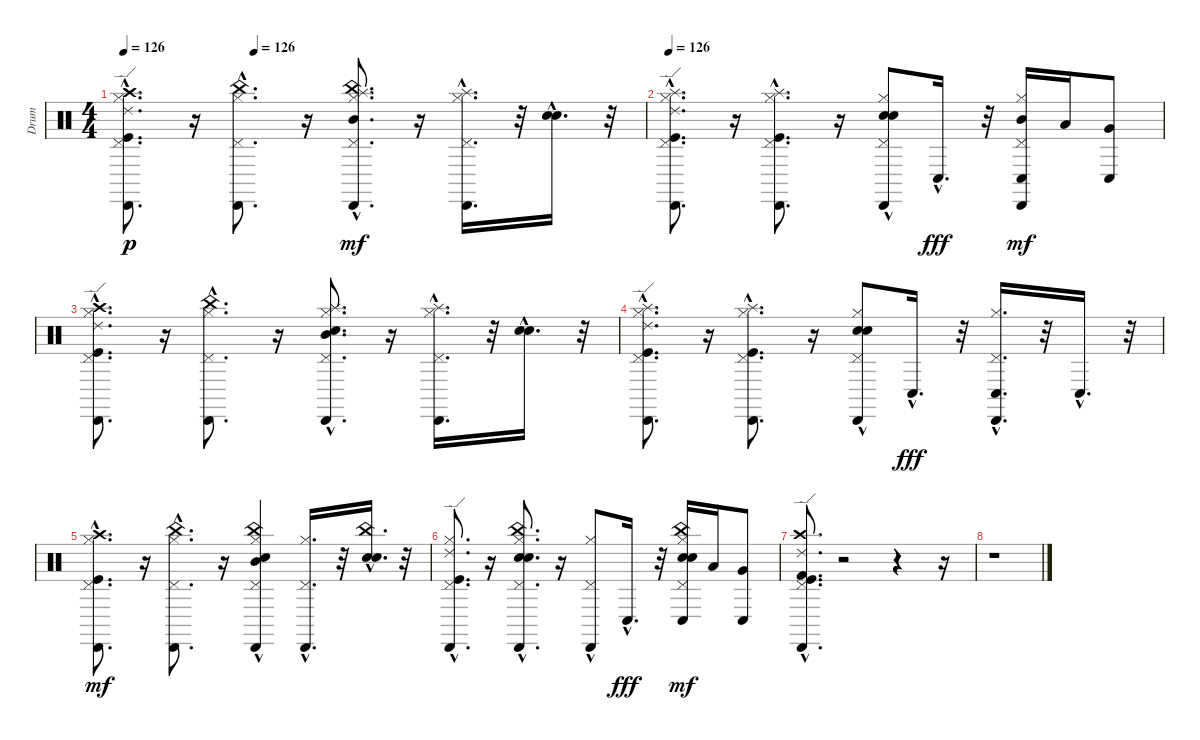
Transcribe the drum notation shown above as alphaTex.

\track ("Drum" "Drum") {instrument percussion}
\staff {score}
\articulation defaults
\ts (4 4)
\tempo 126
\tempo (126 0.25)
\clef neutral
\ks c
("Pedal Hi-Hat (hit)"{hac} "Kick (hit)"{hac} "Hi-Hat (closed)"{hac} "Cabasa (hit)"{hac} "Ride (edge) 2"{hac} "Crash high (hit)"{hac}).8{d dy p} r.16 ("Pedal Hi-Hat (hit)"{hac} "Hi-Hat (closed)"{hac} "Cabasa (hit)"{hac} "China (hit)"{hac}).8{d} r.16 ("Splash (hit)"{hac} "China (hit)"{hac} "Mid Tom (hit)"{hac} "Pedal Hi-Hat (hit)"{hac} "Hi-Hat (closed)"{hac} "Cabasa (hit)"{hac}).8{d dy mf} r.16 ("Splash (hit)"{hac} "Pedal Hi-Hat (hit)"{hac} "Hi-Hat (closed)"{hac} "Cabasa (hit)"{hac}).16{d} r.32 ("Electric Snare (hit)"{hac} "Snare (hit) 2"{hac}).16{d} r.32 |
\tempo 126
("Splash (hit)"{hac} "Cabasa (hit)"{hac} "Pedal Hi-Hat (hit)"{hac} "Hi-Hat (closed)"{hac} "Kick (hit)"{hac} "Ride (edge) 2"{hac}).8{d} r.16 ("Splash (hit)"{hac} "Hi-Hat (closed)"{hac} "Pedal Hi-Hat (hit)"{hac} "Kick (hit)"{hac} "Cabasa (hit)"{hac}).8{d} r.16 ("Cabasa (hit)"{hac} "Pedal Hi-Hat (hit)"{hac} "Electric Snare (hit)"{hac} "Hi-Hat (closed)"{hac} "Snare (hit) 2").8 "Conga low (hit)"{hac}.16{d dy fff} r.32 ("Conga low (hit)" "Pedal Hi-Hat (hit)" "Hi-Hat (closed)" "Cabasa (hit)" "Mid Tom (hit)").16{dy mf} "Low Tom (hit)".16 ("Very Low Tom (hit)" "Conga low (hit)").8 |
("Crash high (hit)"{hac} "Kick (hit)"{hac} "Pedal Hi-Hat (hit)"{hac} "Hi-Hat (closed)"{hac} "Cabasa (hit)"{hac} "Ride (edge) 2"{hac}).8{d} r.16 ("China (hit)"{hac} "Pedal Hi-Hat (hit)"{hac} "Hi-Hat (closed)"{hac} "Cabasa (hit)"{hac}).8{d} r.16 ("Splash (hit)"{hac} "Pedal Hi-Hat (hit)"{hac} "Mid Tom (hit)"{hac} "Hi-Hat (closed)"{hac} "Cabasa (hit)"{hac} "Electric Snare (hit)"{hac}).8{d} r.16 ("Splash (hit)"{hac} "Pedal Hi-Hat (hit)"{hac} "Hi-Hat (closed)"{hac} "Cabasa (hit)"{hac}).16{d} r.32 ("Electric Snare (hit)"{hac} "Snare (hit) 2"{hac}).16{d} r.32 |
("Splash (hit)"{hac} "Ride (edge) 2"{hac} "Cabasa (hit)"{hac} "Hi-Hat (closed)"{hac} "Kick (hit)"{hac} "Pedal Hi-Hat (hit)"{hac}).8{d} r.16 ("Splash (hit)"{hac} "Cabasa (hit)"{hac} "Hi-Hat (closed)"{hac} "Kick (hit)"{hac} "Pedal Hi-Hat (hit)"{hac}).8{d} r.16 ("Hi-Hat (closed)"{hac} "Pedal Hi-Hat (hit)"{hac} "Cabasa (hit)"{hac} "Electric Snare (hit)"{hac} "Snare (hit) 2").8 "Conga low (hit)"{hac}.16{d dy fff} r.32 ("Cabasa (hit)"{hac} "Hi-Hat (closed)"{hac} "Pedal Hi-Hat (hit)"{hac} "Conga low (hit)"{hac}).16{d} r.32 "Conga low (hit)"{hac}.16{d} r.32 |
("Crash high (hit)"{hac} "Pedal Hi-Hat (hit)"{hac} "Kick (hit)"{hac} "Hi-Hat (closed)"{hac} "Cabasa (hit)"{hac}).8{d dy mf} r.16 ("China (hit)"{hac} "Pedal Hi-Hat (hit)"{hac} "Hi-Hat (closed)"{hac} "Cabasa (hit)"{hac}).8{d} r.16 ("China (hit)"{hac} "Mid Tom (hit)" "Pedal Hi-Hat (hit)"{hac} "Hi-Hat (closed)"{hac} "Cabasa (hit)"{hac} "Electric Snare (hit)"{hac}).4 ("Pedal Hi-Hat (hit)"{hac} "Hi-Hat (closed)"{hac} "Cabasa (hit)"{hac}).16{d} r.32 ("China (hit)"{hac} "Electric Snare (hit)"{hac} "Snare (hit) 2"{hac}).16{d} r.32 |
("Cabasa (hit)"{hac} "Pedal Hi-Hat (hit)"{hac} "Hi-Hat (closed)"{hac} "Kick (hit)"{hac} "Ride (edge) 2"{hac}).8{d} r.16 ("China (hit)"{hac} "Snare (hit) 2"{hac} "Electric Snare (hit)"{hac} "Hi-Hat (closed)"{hac} "Pedal Hi-Hat (hit)"{hac} "Cabasa (hit)"{hac}).8{d} r.16 ("Cabasa (hit)" "Pedal Hi-Hat (hit)"{hac} "Hi-Hat (closed)"{hac}).8 "Conga low (hit)"{hac}.16{d dy fff} r.32 ("China (hit)" "Snare (hit) 2" "Electric Snare (hit)" "Conga low (hit)" "Pedal Hi-Hat (hit)" "Hi-Hat (closed)").16{dy mf} "Low Tom (hit)".16 ("Very Low Tom (hit)" "Conga low (hit)").8 |
("Kick (hit)"{hac} "Kick (hit) 2"{hac} "Crash high (hit)"{hac} "Pedal Hi-Hat (hit)"{hac} "Ride (edge) 2"{hac} "Cabasa (hit)"{hac}).8{d} r.2 r.4 r.16 |
r.1
